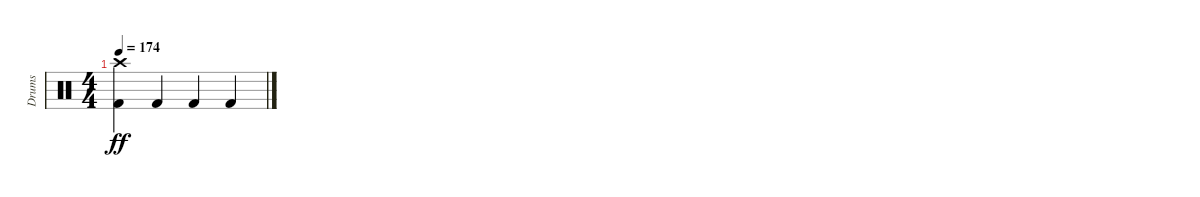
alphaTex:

\track ("Drums" "Drums") {instrument percussion}
\staff {score}
\articulation defaults
\ts (4 4)
\tempo 174
\clef neutral
\ks c
("Crash high (hit)" "Kick (hit) 2").4{dy ff} "Kick (hit) 2".4 "Kick (hit) 2".4 "Kick (hit) 2".4
